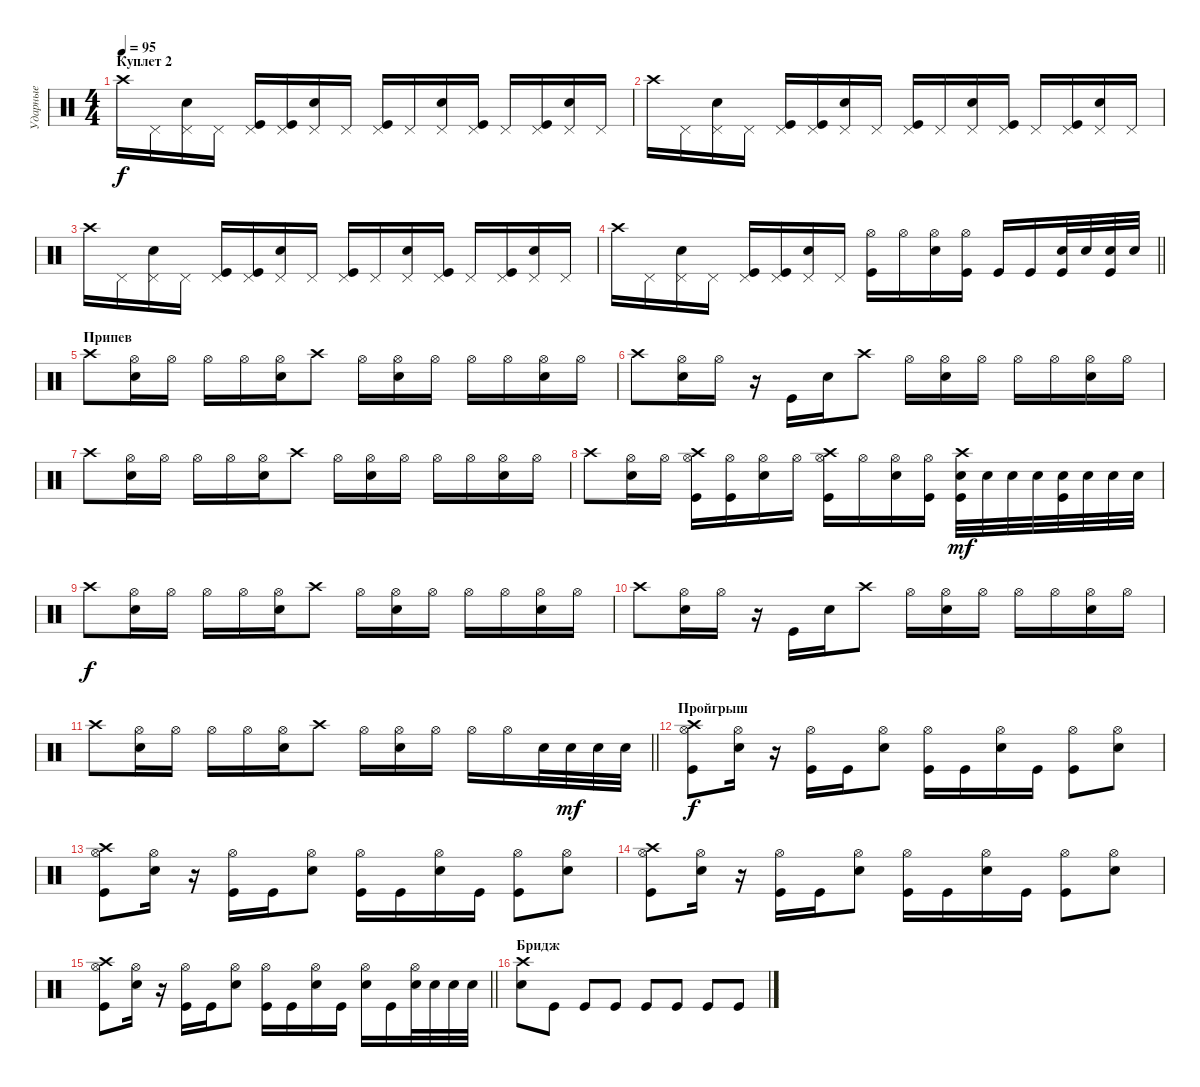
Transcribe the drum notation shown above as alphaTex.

\track ("Ударные" "Ударные") {instrument percussion}
\staff {score}
\articulation defaults
\ts (4 4)
\section ("" "Куплет 2")
\tempo 95
\clef neutral
\ks c "Crash high (hit)".16{dy f} "Pedal Hi-Hat (hit)".16
("Pedal Hi-Hat (hit)" "Snare (hit) 2").16 "Pedal Hi-Hat (hit)".16 ("Pedal Hi-Hat (hit)" "Kick (hit)").16 ("Pedal Hi-Hat (hit)" "Kick (hit)").16 ("Pedal Hi-Hat (hit)" "Snare (hit) 2").16 "Pedal Hi-Hat (hit)".16 ("Pedal Hi-Hat (hit)" "Kick (hit)").16 "Pedal Hi-Hat (hit)".16 ("Pedal Hi-Hat (hit)" "Snare (hit) 2").16 ("Pedal Hi-Hat (hit)" "Kick (hit)").16 "Pedal Hi-Hat (hit)".16 ("Pedal Hi-Hat (hit)" "Kick (hit)").16 ("Pedal Hi-Hat (hit)" "Snare (hit) 2").16 "Pedal Hi-Hat (hit)".16 |
"Crash high (hit)".16 "Pedal Hi-Hat (hit)".16 ("Pedal Hi-Hat (hit)" "Snare (hit) 2").16 "Pedal Hi-Hat (hit)".16 ("Pedal Hi-Hat (hit)" "Kick (hit)").16 ("Pedal Hi-Hat (hit)" "Kick (hit)").16 ("Pedal Hi-Hat (hit)" "Snare (hit) 2").16 "Pedal Hi-Hat (hit)".16 ("Pedal Hi-Hat (hit)" "Kick (hit)").16 "Pedal Hi-Hat (hit)".16 ("Pedal Hi-Hat (hit)" "Snare (hit) 2").16 ("Pedal Hi-Hat (hit)" "Kick (hit)").16 "Pedal Hi-Hat (hit)".16 ("Pedal Hi-Hat (hit)" "Kick (hit)").16 ("Pedal Hi-Hat (hit)" "Snare (hit) 2").16 "Pedal Hi-Hat (hit)".16 |
"Crash high (hit)".16 "Pedal Hi-Hat (hit)".16 ("Pedal Hi-Hat (hit)" "Snare (hit) 2").16 "Pedal Hi-Hat (hit)".16 ("Pedal Hi-Hat (hit)" "Kick (hit)").16 ("Pedal Hi-Hat (hit)" "Kick (hit)").16 ("Pedal Hi-Hat (hit)" "Snare (hit) 2").16 "Pedal Hi-Hat (hit)".16 ("Pedal Hi-Hat (hit)" "Kick (hit)").16 "Pedal Hi-Hat (hit)".16 ("Pedal Hi-Hat (hit)" "Snare (hit) 2").16 ("Pedal Hi-Hat (hit)" "Kick (hit)").16 "Pedal Hi-Hat (hit)".16 ("Pedal Hi-Hat (hit)" "Kick (hit)").16 ("Pedal Hi-Hat (hit)" "Snare (hit) 2").16 "Pedal Hi-Hat (hit)".16 |
\barLineRight lightlight "Crash high (hit)".16 "Pedal Hi-Hat (hit)".16
("Pedal Hi-Hat (hit)" "Snare (hit) 2").16 "Pedal Hi-Hat (hit)".16 ("Pedal Hi-Hat (hit)" "Kick (hit)").16 ("Pedal Hi-Hat (hit)" "Kick (hit)").16 ("Pedal Hi-Hat (hit)" "Snare (hit) 2").16 "Pedal Hi-Hat (hit)".16 ("Hi-Hat (open)" "Kick (hit)").16 "Hi-Hat (open)".16 ("Hi-Hat (open)" "Snare (hit) 2").16 ("Hi-Hat (open)" "Kick (hit)").16 "Kick (hit)".16 "Kick (hit)".16 ("Kick (hit)" "Snare (hit) 2").32 "Snare (hit) 2".32 ("Kick (hit)" "Snare (hit) 2").32 "Snare (hit) 2".32 |
\section ("" "Припев")
"Crash high (hit)".8 ("Hi-Hat (open)" "Snare (hit) 2").16 "Hi-Hat (open)".16 "Hi-Hat (open)".16 "Hi-Hat (open)".16 ("Hi-Hat (open)" "Snare (hit) 2").16 "Crash high (hit)".8 "Hi-Hat (open)".16 ("Hi-Hat (open)" "Snare (hit) 2").16 "Hi-Hat (open)".16 "Hi-Hat (open)".16 "Hi-Hat (open)".16 ("Hi-Hat (open)" "Snare (hit) 2").16 "Hi-Hat (open)".16 |
"Crash high (hit)".8 ("Hi-Hat (open)" "Snare (hit) 2").16 "Hi-Hat (open)".16 r.16 "Kick (hit)".16 "Snare (hit) 2".16 "Crash high (hit)".8 "Hi-Hat (open)".16 ("Hi-Hat (open)" "Snare (hit) 2").16 "Hi-Hat (open)".16 "Hi-Hat (open)".16 "Hi-Hat (open)".16 ("Hi-Hat (open)" "Snare (hit) 2").16 "Hi-Hat (open)".16 |
"Crash high (hit)".8 ("Hi-Hat (open)" "Snare (hit) 2").16 "Hi-Hat (open)".16 "Hi-Hat (open)".16 "Hi-Hat (open)".16 ("Hi-Hat (open)" "Snare (hit) 2").16 "Crash high (hit)".8 "Hi-Hat (open)".16 ("Hi-Hat (open)" "Snare (hit) 2").16 "Hi-Hat (open)".16 "Hi-Hat (open)".16 "Hi-Hat (open)".16 ("Hi-Hat (open)" "Snare (hit) 2").16 "Hi-Hat (open)".16 |
"Crash high (hit)".8 ("Hi-Hat (open)" "Snare (hit) 2").16 "Hi-Hat (open)".16 ("Crash high (hit)" "Hi-Hat (open)" "Kick (hit)").16 ("Hi-Hat (open)" "Kick (hit)").16 ("Hi-Hat (open)" "Snare (hit) 2").16 "Hi-Hat (open)".16 ("Crash high (hit)" "Hi-Hat (open)" "Kick (hit)").16 "Hi-Hat (open)".16 ("Hi-Hat (open)" "Snare (hit) 2").16 ("Hi-Hat (open)" "Kick (hit)").16 ("Crash high (hit)" "Kick (hit)" "Snare (hit) 2").32{dy mf} "Snare (hit) 2".32 "Snare (hit) 2".32 "Snare (hit) 2".32 ("Kick (hit)" "Snare (hit) 2").32 "Snare (hit) 2".32 "Snare (hit) 2".32 "Snare (hit) 2".32 |
"Crash high (hit)".8{dy f} ("Hi-Hat (open)" "Snare (hit) 2").16 "Hi-Hat (open)".16 "Hi-Hat (open)".16 "Hi-Hat (open)".16 ("Hi-Hat (open)" "Snare (hit) 2").16 "Crash high (hit)".8 "Hi-Hat (open)".16 ("Hi-Hat (open)" "Snare (hit) 2").16 "Hi-Hat (open)".16 "Hi-Hat (open)".16 "Hi-Hat (open)".16 ("Hi-Hat (open)" "Snare (hit) 2").16 "Hi-Hat (open)".16 |
"Crash high (hit)".8 ("Hi-Hat (open)" "Snare (hit) 2").16 "Hi-Hat (open)".16 r.16 "Kick (hit)".16 "Snare (hit) 2".16 "Crash high (hit)".8 "Hi-Hat (open)".16 ("Hi-Hat (open)" "Snare (hit) 2").16 "Hi-Hat (open)".16 "Hi-Hat (open)".16 "Hi-Hat (open)".16 ("Hi-Hat (open)" "Snare (hit) 2").16 "Hi-Hat (open)".16 |
\barLineRight lightlight "Crash high (hit)".8
("Hi-Hat (open)" "Snare (hit) 2").16 "Hi-Hat (open)".16 "Hi-Hat (open)".16 "Hi-Hat (open)".16 ("Hi-Hat (open)" "Snare (hit) 2").16 "Crash high (hit)".8 "Hi-Hat (open)".16 ("Hi-Hat (open)" "Snare (hit) 2").16 "Hi-Hat (open)".16 "Hi-Hat (open)".16 "Hi-Hat (open)".16 "Snare (hit) 2".32 "Snare (hit) 2".32{dy mf} "Snare (hit) 2".32 "Snare (hit) 2".32 |
\section ("" "Пройгрыш")
("Kick (hit)" "Hi-Hat (open)" "Crash high (hit)").8{dy f} ("Hi-Hat (open)" "Snare (hit) 2").16 r.16 ("Hi-Hat (open)" "Kick (hit)").16 "Kick (hit)".16 ("Hi-Hat (open)" "Snare (hit) 2").8 ("Hi-Hat (open)" "Kick (hit)").16 "Kick (hit)".16 ("Hi-Hat (open)" "Snare (hit) 2").16 "Kick (hit)".16 ("Hi-Hat (open)" "Kick (hit)").8 ("Hi-Hat (open)" "Snare (hit) 2").8 |
("Kick (hit)" "Hi-Hat (open)" "Crash high (hit)").8 ("Hi-Hat (open)" "Snare (hit) 2").16 r.16 ("Hi-Hat (open)" "Kick (hit)").16 "Kick (hit)".16 ("Hi-Hat (open)" "Snare (hit) 2").8 ("Hi-Hat (open)" "Kick (hit)").16 "Kick (hit)".16 ("Hi-Hat (open)" "Snare (hit) 2").16 "Kick (hit)".16 ("Hi-Hat (open)" "Kick (hit)").8 ("Hi-Hat (open)" "Snare (hit) 2").8 |
("Kick (hit)" "Hi-Hat (open)" "Crash high (hit)").8 ("Hi-Hat (open)" "Snare (hit) 2").16 r.16 ("Hi-Hat (open)" "Kick (hit)").16 "Kick (hit)".16 ("Hi-Hat (open)" "Snare (hit) 2").8 ("Hi-Hat (open)" "Kick (hit)").16 "Kick (hit)".16 ("Hi-Hat (open)" "Snare (hit) 2").16 "Kick (hit)".16 ("Hi-Hat (open)" "Kick (hit)").8 ("Hi-Hat (open)" "Snare (hit) 2").8 |
\barLineRight lightlight
("Kick (hit)" "Hi-Hat (open)" "Crash high (hit)").8 ("Hi-Hat (open)" "Snare (hit) 2").16 r.16 ("Hi-Hat (open)" "Kick (hit)").16 "Kick (hit)".16 ("Hi-Hat (open)" "Snare (hit) 2").8 ("Hi-Hat (open)" "Kick (hit)").16 "Kick (hit)".16 ("Hi-Hat (open)" "Snare (hit) 2").16 "Kick (hit)".16 ("Hi-Hat (open)" "Snare (hit) 2").16 "Kick (hit)".16 ("Hi-Hat (open)" "Snare (hit) 2").32 "Snare (hit) 2".32 "Snare (hit) 2".32 "Snare (hit) 2".32 |
\section ("" "Бридж")
("Crash high (hit)" "Snare (hit) 2").8 "Kick (hit)".8 "Kick (hit)".8 "Kick (hit)".8 "Kick (hit)".8 "Kick (hit)".8 "Kick (hit)".8 "Kick (hit)".8
